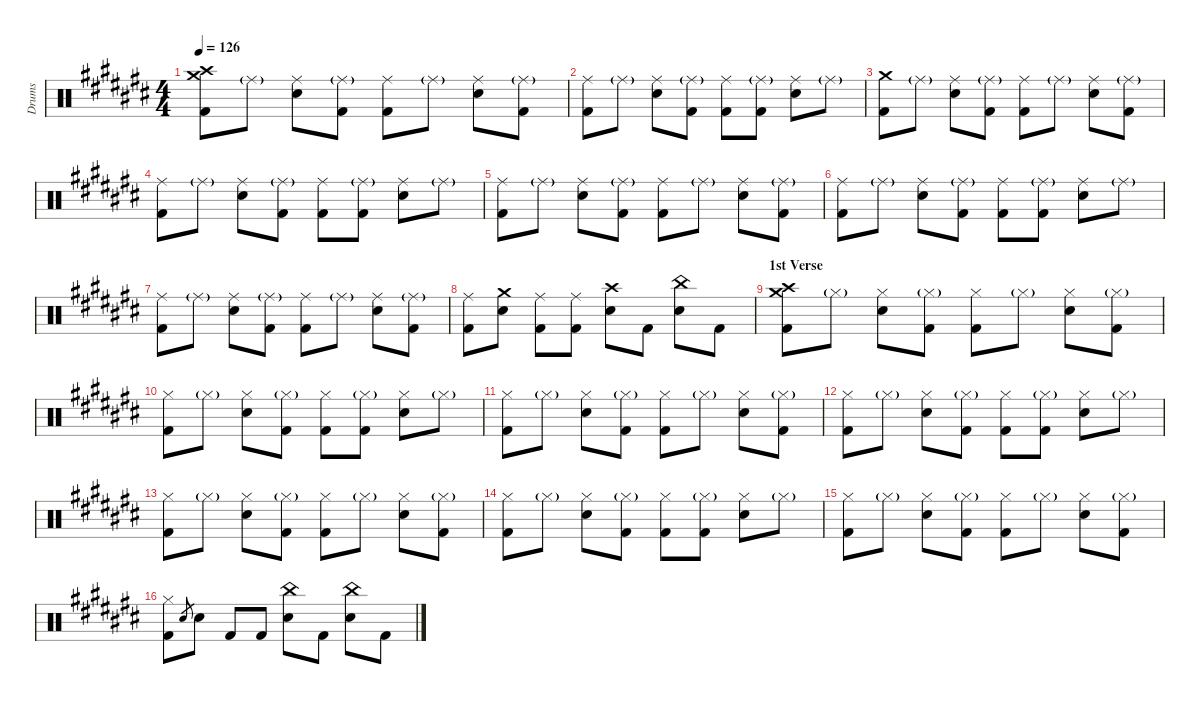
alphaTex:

\hideDynamics
\bracketExtendMode nobrackets
\otherSystemsTrackNameOrientation horizontal
\track ("Drumkit" "Drums") {defaultSystemsLayout 4 instrument percussion}
\staff {score}
\articulation defaults
\ts (4 4)
\tempo 126
\clef neutral
\ks c#
("Crash medium (hit)"{acc forcenatural} "Kick (hit) 2"{acc forcenatural} "Crash high (hit)"{acc forcenatural}).8{dy ff beam Down} "Ride (middle)"{g acc forcenatural}.8{beam Down} ("Ride (middle)"{acc forcenatural} "Snare (hit) 2"{acc forcenatural}).8{beam Down} ("Ride (middle)"{g acc forcenatural} "Kick (hit) 2"{acc forcenatural}).8{beam Down} ("Ride (middle)"{acc forcenatural} "Kick (hit) 2"{acc forcenatural}).8{beam Down} "Ride (middle)"{g acc forcenatural}.8{beam Down} ("Ride (middle)"{acc forcenatural} "Snare (hit) 2"{acc forcenatural}).8{beam Down} ("Ride (middle)"{g acc forcenatural} "Kick (hit) 2"{acc forcenatural}).8{beam Down} |
("Kick (hit) 2"{acc forcenatural} "Ride (middle)"{acc forcenatural}).8{beam Down} "Ride (middle)"{g acc forcenatural}.8{beam Down} ("Ride (middle)"{acc forcenatural} "Snare (hit) 2"{acc forcenatural}).8{beam Down} ("Ride (middle)"{g acc forcenatural} "Kick (hit) 2"{acc forcenatural}).8{beam Down} ("Ride (middle)"{acc forcenatural} "Kick (hit) 2"{acc forcenatural}).8{beam Down} ("Ride (middle)"{g acc forcenatural} "Kick (hit) 2"{acc forcenatural}).8{beam Down} ("Ride (middle)"{acc forcenatural} "Snare (hit) 2"{acc forcenatural}).8{beam Down} "Ride (middle)"{g acc forcenatural}.8{beam Down} |
("Crash medium (hit)"{acc forcenatural} "Kick (hit) 2"{acc forcenatural}).8{beam Down} "Ride (middle)"{g acc forcenatural}.8{beam Down} ("Ride (middle)"{acc forcenatural} "Snare (hit) 2"{acc forcenatural}).8{beam Down} ("Ride (middle)"{g acc forcenatural} "Kick (hit) 2"{acc forcenatural}).8{beam Down} ("Ride (middle)"{acc forcenatural} "Kick (hit) 2"{acc forcenatural}).8{beam Down} "Ride (middle)"{g acc forcenatural}.8{beam Down} ("Ride (middle)"{acc forcenatural} "Snare (hit) 2"{acc forcenatural}).8{beam Down} ("Ride (middle)"{g acc forcenatural} "Kick (hit) 2"{acc forcenatural}).8{beam Down} |
("Kick (hit) 2"{acc forcenatural} "Ride (middle)"{acc forcenatural}).8{beam Down} "Ride (middle)"{g acc forcenatural}.8{beam Down} ("Ride (middle)"{acc forcenatural} "Snare (hit) 2"{acc forcenatural}).8{beam Down} ("Ride (middle)"{g acc forcenatural} "Kick (hit) 2"{acc forcenatural}).8{beam Down} ("Ride (middle)"{acc forcenatural} "Kick (hit) 2"{acc forcenatural}).8{beam Down} ("Ride (middle)"{g acc forcenatural} "Kick (hit) 2"{acc forcenatural}).8{beam Down} ("Ride (middle)"{acc forcenatural} "Snare (hit) 2"{acc forcenatural}).8{beam Down} "Ride (middle)"{g acc forcenatural}.8{beam Down} |
("Kick (hit) 2"{acc forcenatural} "Ride (middle)"{acc forcenatural}).8{beam Down} "Ride (middle)"{g acc forcenatural}.8{beam Down} ("Ride (middle)"{acc forcenatural} "Snare (hit) 2"{acc forcenatural}).8{beam Down} ("Ride (middle)"{g acc forcenatural} "Kick (hit) 2"{acc forcenatural}).8{beam Down} ("Ride (middle)"{acc forcenatural} "Kick (hit) 2"{acc forcenatural}).8{beam Down} "Ride (middle)"{g acc forcenatural}.8{beam Down} ("Ride (middle)"{acc forcenatural} "Snare (hit) 2"{acc forcenatural}).8{beam Down} ("Ride (middle)"{g acc forcenatural} "Kick (hit) 2"{acc forcenatural}).8{beam Down} |
("Kick (hit) 2"{acc forcenatural} "Ride (middle)"{acc forcenatural}).8{beam Down} "Ride (middle)"{g acc forcenatural}.8{beam Down} ("Ride (middle)"{acc forcenatural} "Snare (hit) 2"{acc forcenatural}).8{beam Down} ("Ride (middle)"{g acc forcenatural} "Kick (hit) 2"{acc forcenatural}).8{beam Down} ("Ride (middle)"{acc forcenatural} "Kick (hit) 2"{acc forcenatural}).8{beam Down} ("Ride (middle)"{g acc forcenatural} "Kick (hit) 2"{acc forcenatural}).8{beam Down} ("Ride (middle)"{acc forcenatural} "Snare (hit) 2"{acc forcenatural}).8{beam Down} "Ride (middle)"{g acc forcenatural}.8{beam Down} |
("Kick (hit) 2"{acc forcenatural} "Ride (middle)"{acc forcenatural}).8{beam Down} "Ride (middle)"{g acc forcenatural}.8{beam Down} ("Ride (middle)"{acc forcenatural} "Snare (hit) 2"{acc forcenatural}).8{beam Down} ("Ride (middle)"{g acc forcenatural} "Kick (hit) 2"{acc forcenatural}).8{beam Down} ("Ride (middle)"{acc forcenatural} "Kick (hit) 2"{acc forcenatural}).8{beam Down} "Ride (middle)"{g acc forcenatural}.8{beam Down} ("Ride (middle)"{acc forcenatural} "Snare (hit) 2"{acc forcenatural}).8{beam Down} ("Ride (middle)"{g acc forcenatural} "Kick (hit) 2"{acc forcenatural}).8{beam Down} |
("Ride (middle)"{acc forcenatural} "Kick (hit) 2"{acc forcenatural}).8{beam Down} ("Crash medium (hit)"{acc forcenatural} "Snare (hit) 2"{acc forcenatural}).8{beam Down} ("Ride (middle)"{acc forcenatural} "Kick (hit) 2"{acc forcenatural}).8{beam Down} ("Ride (middle)"{acc forcenatural} "Kick (hit) 2"{acc forcenatural}).8{beam Down} ("Crash high (hit)"{acc forcenatural} "Snare (hit) 2"{acc forcenatural}).8{beam Down} "Kick (hit) 2"{acc forcenatural}.8{beam Down} ("Snare (hit) 2"{acc forcenatural} "China (hit)"{acc forcenatural}).8{beam Down} "Kick (hit) 2"{acc forcenatural}.8{beam Down} |
\section ("" "1st Verse")
("Crash medium (hit)"{acc forcenatural} "Kick (hit) 2"{acc forcenatural} "Crash high (hit)"{acc forcenatural}).8{beam Down} "Hi-Hat (closed)"{g acc forcenatural}.8{beam Down} ("Hi-Hat (closed)"{acc forcenatural} "Snare (hit) 2"{acc forcenatural}).8{beam Down} ("Hi-Hat (closed)"{g acc forcenatural} "Kick (hit) 2"{acc forcenatural}).8{beam Down} ("Hi-Hat (closed)"{acc forcenatural} "Kick (hit) 2"{acc forcenatural}).8{beam Down} "Hi-Hat (closed)"{g acc forcenatural}.8{beam Down} ("Hi-Hat (closed)"{acc forcenatural} "Snare (hit) 2"{acc forcenatural}).8{beam Down} ("Hi-Hat (closed)"{g acc forcenatural} "Kick (hit) 2"{acc forcenatural}).8{beam Down} |
("Hi-Hat (closed)"{acc forcenatural} "Kick (hit) 2"{acc forcenatural}).8{beam Down} "Hi-Hat (closed)"{g acc forcenatural}.8{beam Down} ("Hi-Hat (closed)"{acc forcenatural} "Snare (hit) 2"{acc forcenatural}).8{beam Down} ("Hi-Hat (closed)"{g acc forcenatural} "Kick (hit) 2"{acc forcenatural}).8{beam Down} ("Hi-Hat (closed)"{acc forcenatural} "Kick (hit) 2"{acc forcenatural}).8{beam Down} ("Hi-Hat (closed)"{g acc forcenatural} "Kick (hit) 2"{acc forcenatural}).8{beam Down} ("Hi-Hat (closed)"{acc forcenatural} "Snare (hit) 2"{acc forcenatural}).8{beam Down} "Hi-Hat (closed)"{g acc forcenatural}.8{beam Down} |
("Hi-Hat (closed)"{acc forcenatural} "Kick (hit) 2"{acc forcenatural}).8{beam Down} "Hi-Hat (closed)"{g acc forcenatural}.8{beam Down} ("Hi-Hat (closed)"{acc forcenatural} "Snare (hit) 2"{acc forcenatural}).8{beam Down} ("Hi-Hat (closed)"{g acc forcenatural} "Kick (hit) 2"{acc forcenatural}).8{beam Down} ("Hi-Hat (closed)"{acc forcenatural} "Kick (hit) 2"{acc forcenatural}).8{beam Down} "Hi-Hat (closed)"{g acc forcenatural}.8{beam Down} ("Hi-Hat (closed)"{acc forcenatural} "Snare (hit) 2"{acc forcenatural}).8{beam Down} ("Hi-Hat (closed)"{g acc forcenatural} "Kick (hit) 2"{acc forcenatural}).8{beam Down} |
("Hi-Hat (closed)"{acc forcenatural} "Kick (hit) 2"{acc forcenatural}).8{beam Down} "Hi-Hat (closed)"{g acc forcenatural}.8{beam Down} ("Hi-Hat (closed)"{acc forcenatural} "Snare (hit) 2"{acc forcenatural}).8{beam Down} ("Hi-Hat (closed)"{g acc forcenatural} "Kick (hit) 2"{acc forcenatural}).8{beam Down} ("Hi-Hat (closed)"{acc forcenatural} "Kick (hit) 2"{acc forcenatural}).8{beam Down} ("Hi-Hat (closed)"{g acc forcenatural} "Kick (hit) 2"{acc forcenatural}).8{beam Down} ("Hi-Hat (closed)"{acc forcenatural} "Snare (hit) 2"{acc forcenatural}).8{beam Down} "Hi-Hat (closed)"{g acc forcenatural}.8{beam Down} |
("Hi-Hat (closed)"{acc forcenatural} "Kick (hit) 2"{acc forcenatural}).8{beam Down} "Hi-Hat (closed)"{g acc forcenatural}.8{beam Down} ("Hi-Hat (closed)"{acc forcenatural} "Snare (hit) 2"{acc forcenatural}).8{beam Down} ("Hi-Hat (closed)"{g acc forcenatural} "Kick (hit) 2"{acc forcenatural}).8{beam Down} ("Hi-Hat (closed)"{acc forcenatural} "Kick (hit) 2"{acc forcenatural}).8{beam Down} "Hi-Hat (closed)"{g acc forcenatural}.8{beam Down} ("Hi-Hat (closed)"{acc forcenatural} "Snare (hit) 2"{acc forcenatural}).8{beam Down} ("Hi-Hat (closed)"{g acc forcenatural} "Kick (hit) 2"{acc forcenatural}).8{beam Down} |
("Hi-Hat (closed)"{acc forcenatural} "Kick (hit) 2"{acc forcenatural}).8{beam Down} "Hi-Hat (closed)"{g acc forcenatural}.8{beam Down} ("Hi-Hat (closed)"{acc forcenatural} "Snare (hit) 2"{acc forcenatural}).8{beam Down} ("Hi-Hat (closed)"{g acc forcenatural} "Kick (hit) 2"{acc forcenatural}).8{beam Down} ("Hi-Hat (closed)"{acc forcenatural} "Kick (hit) 2"{acc forcenatural}).8{beam Down} ("Hi-Hat (closed)"{g acc forcenatural} "Kick (hit) 2"{acc forcenatural}).8{beam Down} ("Hi-Hat (closed)"{acc forcenatural} "Snare (hit) 2"{acc forcenatural}).8{beam Down} "Hi-Hat (closed)"{g acc forcenatural}.8{beam Down} |
("Hi-Hat (closed)"{acc forcenatural} "Kick (hit) 2"{acc forcenatural}).8{beam Down} "Hi-Hat (closed)"{g acc forcenatural}.8{beam Down} ("Hi-Hat (closed)"{acc forcenatural} "Snare (hit) 2"{acc forcenatural}).8{beam Down} ("Hi-Hat (closed)"{g acc forcenatural} "Kick (hit) 2"{acc forcenatural}).8{beam Down} ("Hi-Hat (closed)"{acc forcenatural} "Kick (hit) 2"{acc forcenatural}).8{beam Down} "Hi-Hat (closed)"{g acc forcenatural}.8{beam Down} ("Hi-Hat (closed)"{acc forcenatural} "Snare (hit) 2"{acc forcenatural}).8{beam Down} ("Hi-Hat (closed)"{g acc forcenatural} "Kick (hit) 2"{acc forcenatural}).8{beam Down} |
("Hi-Hat (closed)"{acc forcenatural} "Kick (hit) 2"{acc forcenatural}).8{beam Down} "Snare (hit) 2"{acc forcenatural}.8{gr beam Up} "Snare (hit) 2"{acc forcenatural}.8{beam Down} "Kick (hit) 2"{acc forcenatural}.8{beam Up} "Kick (hit) 2"{acc forcenatural}.8{beam Up} ("Snare (hit) 2"{acc forcenatural} "China (hit)"{acc forcenatural}).8{beam Down} "Kick (hit) 2"{acc forcenatural}.8{beam Down} ("Snare (hit) 2"{acc forcenatural} "China (hit)"{acc forcenatural}).8{beam Down} "Kick (hit) 2"{acc forcenatural}.8{beam Down}
